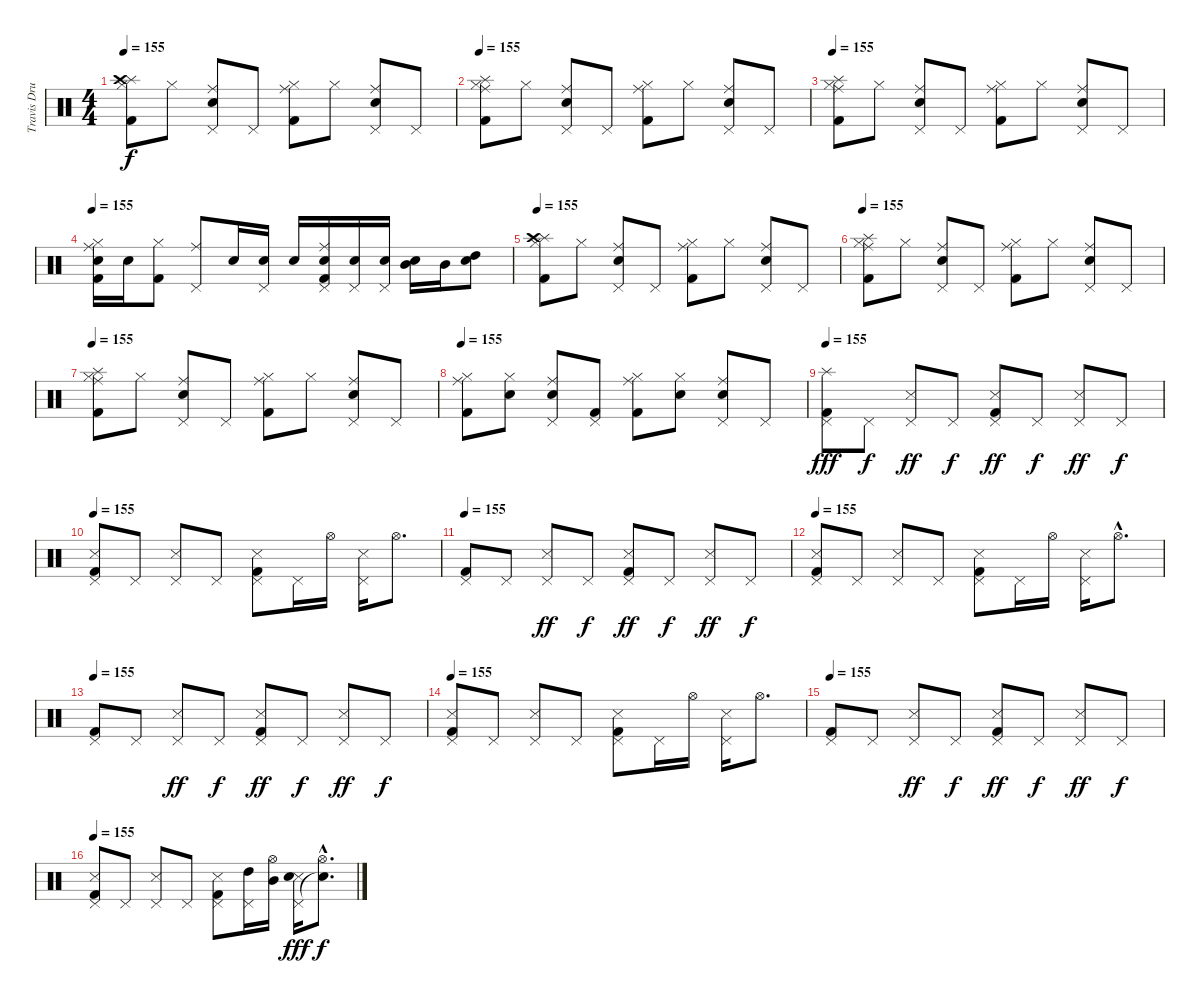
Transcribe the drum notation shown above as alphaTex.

\track ("Travis Drums" "Travis Dru") {instrument percussion}
\staff {score}
\articulation defaults
\ts (4 4)
\tempo 155
\clef neutral
\ks c
("Splash (hit)" "Hi-Hat (closed)" "Kick (hit) 2" "Crash high (hit)").8{dy f} "Hi-Hat (closed)".8 ("Electric Snare (hit)" "Pedal Hi-Hat (hit)" "Ride (middle)").8 "Pedal Hi-Hat (hit)".8 ("Hi-Hat (closed)" "Kick (hit) 2" "Ride (middle)").8 "Hi-Hat (closed)".8 ("Electric Snare (hit)" "Pedal Hi-Hat (hit)" "Ride (middle)").8 "Pedal Hi-Hat (hit)".8 |
\tempo 155
("Splash (hit)" "Hi-Hat (closed)" "Kick (hit) 2" "Ride (middle)").8 "Hi-Hat (closed)".8 ("Electric Snare (hit)" "Pedal Hi-Hat (hit)" "Ride (middle)").8 "Pedal Hi-Hat (hit)".8 ("Hi-Hat (closed)" "Kick (hit) 2" "Ride (middle)").8 "Hi-Hat (closed)".8 ("Electric Snare (hit)" "Pedal Hi-Hat (hit)" "Ride (middle)").8 "Pedal Hi-Hat (hit)".8 |
\tempo 155
("Splash (hit)" "Hi-Hat (closed)" "Kick (hit) 2" "Ride (middle)").8 "Hi-Hat (closed)".8 ("Electric Snare (hit)" "Pedal Hi-Hat (hit)" "Ride (middle)").8 "Pedal Hi-Hat (hit)".8 ("Hi-Hat (closed)" "Kick (hit) 2" "Ride (middle)").8 "Hi-Hat (closed)".8 ("Electric Snare (hit)" "Pedal Hi-Hat (hit)" "Ride (middle)").8 "Pedal Hi-Hat (hit)".8 |
\tempo 155
("Electric Snare (hit)" "Hi-Hat (closed)" "Kick (hit) 2" "Ride (middle)").16 "Electric Snare (hit)".16 ("Hi-Hat (closed)" "Kick (hit) 2").8 ("Pedal Hi-Hat (hit)" "Ride (middle)").8 "Electric Snare (hit)".16 ("Electric Snare (hit)" "Pedal Hi-Hat (hit)").16 "Electric Snare (hit)".16 ("Electric Snare (hit)" "Pedal Hi-Hat (hit)" "Kick (hit) 2" "Ride (middle)").16 ("Snare (hit) 2" "Pedal Hi-Hat (hit)").16 ("Snare (hit) 2" "Pedal Hi-Hat (hit)").16 ("Electric Snare (hit)" "Mid Tom (hit)").16 "Mid Tom (hit)".16 ("Electric Snare (hit)" "High Tom (hit)").8 |
\tempo 155
("Splash (hit)" "Hi-Hat (closed)" "Kick (hit) 2" "Crash high (hit)").8 "Hi-Hat (closed)".8 ("Electric Snare (hit)" "Pedal Hi-Hat (hit)" "Ride (middle)").8 "Pedal Hi-Hat (hit)".8 ("Hi-Hat (closed)" "Kick (hit) 2" "Ride (middle)").8 "Hi-Hat (closed)".8 ("Electric Snare (hit)" "Pedal Hi-Hat (hit)" "Ride (middle)").8 "Pedal Hi-Hat (hit)".8 |
\tempo 155
("Splash (hit)" "Hi-Hat (closed)" "Kick (hit) 2" "Ride (middle)").8 "Hi-Hat (closed)".8 ("Electric Snare (hit)" "Pedal Hi-Hat (hit)" "Ride (middle)").8 "Pedal Hi-Hat (hit)".8 ("Hi-Hat (closed)" "Kick (hit) 2" "Ride (middle)").8 "Hi-Hat (closed)".8 ("Electric Snare (hit)" "Pedal Hi-Hat (hit)" "Ride (middle)").8 "Pedal Hi-Hat (hit)".8 |
\tempo 155
("Splash (hit)" "Hi-Hat (closed)" "Kick (hit) 2" "Ride (middle)").8 "Hi-Hat (closed)".8 ("Electric Snare (hit)" "Pedal Hi-Hat (hit)" "Ride (middle)").8 "Pedal Hi-Hat (hit)".8 ("Hi-Hat (closed)" "Kick (hit) 2" "Ride (middle)").8 "Hi-Hat (closed)".8 ("Electric Snare (hit)" "Pedal Hi-Hat (hit)" "Ride (middle)").8 "Pedal Hi-Hat (hit)".8 |
\tempo 155
("Hi-Hat (closed)" "Kick (hit) 2" "Ride (middle)").8 ("Electric Snare (hit)" "Hi-Hat (closed)").8 ("Electric Snare (hit)" "Pedal Hi-Hat (hit)" "Ride (middle)").8 ("Pedal Hi-Hat (hit)" "Kick (hit) 2").8 ("Hi-Hat (closed)" "Kick (hit) 2" "Ride (middle)").8 ("Electric Snare (hit)" "Hi-Hat (closed)").8 ("Electric Snare (hit)" "Pedal Hi-Hat (hit)" "Ride (middle)").8 "Pedal Hi-Hat (hit)".8 |
\tempo 155
("Splash (hit)" "Pedal Hi-Hat (hit)" "Kick (hit) 2").8{dy fff} "Pedal Hi-Hat (hit)".8{dy f} ("Metronome (hit)" "Pedal Hi-Hat (hit)").8{dy ff} "Pedal Hi-Hat (hit)".8{dy f} ("Metronome (hit)" "Pedal Hi-Hat (hit)" "Kick (hit) 2").8{dy ff} "Pedal Hi-Hat (hit)".8{dy f} ("Metronome (hit)" "Pedal Hi-Hat (hit)").8{dy ff} "Pedal Hi-Hat (hit)".8{dy f} |
\tempo 155
("Metronome (hit)" "Pedal Hi-Hat (hit)" "Kick (hit) 2").8 "Pedal Hi-Hat (hit)".8 ("Metronome (hit)" "Pedal Hi-Hat (hit)").8 "Pedal Hi-Hat (hit)".8 ("Metronome (hit)" "Pedal Hi-Hat (hit)" "Kick (hit) 2").8 "Pedal Hi-Hat (hit)".16 "Hi-Hat (open)".16 ("Metronome (hit)" "Pedal Hi-Hat (hit)").16 "Hi-Hat (open)".8{d} |
\tempo 155
("Pedal Hi-Hat (hit)" "Kick (hit) 2").8 "Pedal Hi-Hat (hit)".8 ("Metronome (hit)" "Pedal Hi-Hat (hit)").8{dy ff} "Pedal Hi-Hat (hit)".8{dy f} ("Metronome (hit)" "Pedal Hi-Hat (hit)" "Kick (hit) 2").8{dy ff} "Pedal Hi-Hat (hit)".8{dy f} ("Metronome (hit)" "Pedal Hi-Hat (hit)").8{dy ff} "Pedal Hi-Hat (hit)".8{dy f} |
\tempo 155
("Metronome (hit)" "Pedal Hi-Hat (hit)" "Kick (hit) 2").8 "Pedal Hi-Hat (hit)".8 ("Metronome (hit)" "Pedal Hi-Hat (hit)").8 "Pedal Hi-Hat (hit)".8 ("Metronome (hit)" "Pedal Hi-Hat (hit)" "Kick (hit) 2").8 "Pedal Hi-Hat (hit)".16 "Hi-Hat (open)".16 ("Metronome (hit)" "Pedal Hi-Hat (hit)").16 "Hi-Hat (open)"{hac}.8{d} |
\tempo 155
("Pedal Hi-Hat (hit)" "Kick (hit) 2").8 "Pedal Hi-Hat (hit)".8 ("Metronome (hit)" "Pedal Hi-Hat (hit)").8{dy ff} "Pedal Hi-Hat (hit)".8{dy f} ("Metronome (hit)" "Pedal Hi-Hat (hit)" "Kick (hit) 2").8{dy ff} "Pedal Hi-Hat (hit)".8{dy f} ("Metronome (hit)" "Pedal Hi-Hat (hit)").8{dy ff} "Pedal Hi-Hat (hit)".8{dy f} |
\tempo 155
("Metronome (hit)" "Pedal Hi-Hat (hit)" "Kick (hit) 2").8 "Pedal Hi-Hat (hit)".8 ("Metronome (hit)" "Pedal Hi-Hat (hit)").8 "Pedal Hi-Hat (hit)".8 ("Metronome (hit)" "Pedal Hi-Hat (hit)" "Kick (hit) 2").8 "Pedal Hi-Hat (hit)".16 "Hi-Hat (open)".16 ("Metronome (hit)" "Pedal Hi-Hat (hit)").16 "Hi-Hat (open)".8{d} |
\tempo 155
("Pedal Hi-Hat (hit)" "Kick (hit) 2").8 "Pedal Hi-Hat (hit)".8 ("Metronome (hit)" "Pedal Hi-Hat (hit)").8{dy ff} "Pedal Hi-Hat (hit)".8{dy f} ("Metronome (hit)" "Pedal Hi-Hat (hit)" "Kick (hit) 2").8{dy ff} "Pedal Hi-Hat (hit)".8{dy f} ("Metronome (hit)" "Pedal Hi-Hat (hit)").8{dy ff} "Pedal Hi-Hat (hit)".8{dy f} |
\tempo 155
("Metronome (hit)" "Pedal Hi-Hat (hit)" "Kick (hit) 2").8 "Pedal Hi-Hat (hit)".8 ("Metronome (hit)" "Pedal Hi-Hat (hit)").8 "Pedal Hi-Hat (hit)".8 ("Metronome (hit)" "Pedal Hi-Hat (hit)" "Kick (hit) 2").8 ("Pedal Hi-Hat (hit)" "High Tom (hit)").16 ("Hi-Hat (open)" "Mid Tom (hit)").16 ("Metronome (hit)" "Pedal Hi-Hat (hit)" "Electric Snare (hit)").16{dy fff} ("Hi-Hat (open)"{hac} "Snare (hit)"{hac t}).8{d dy f}
